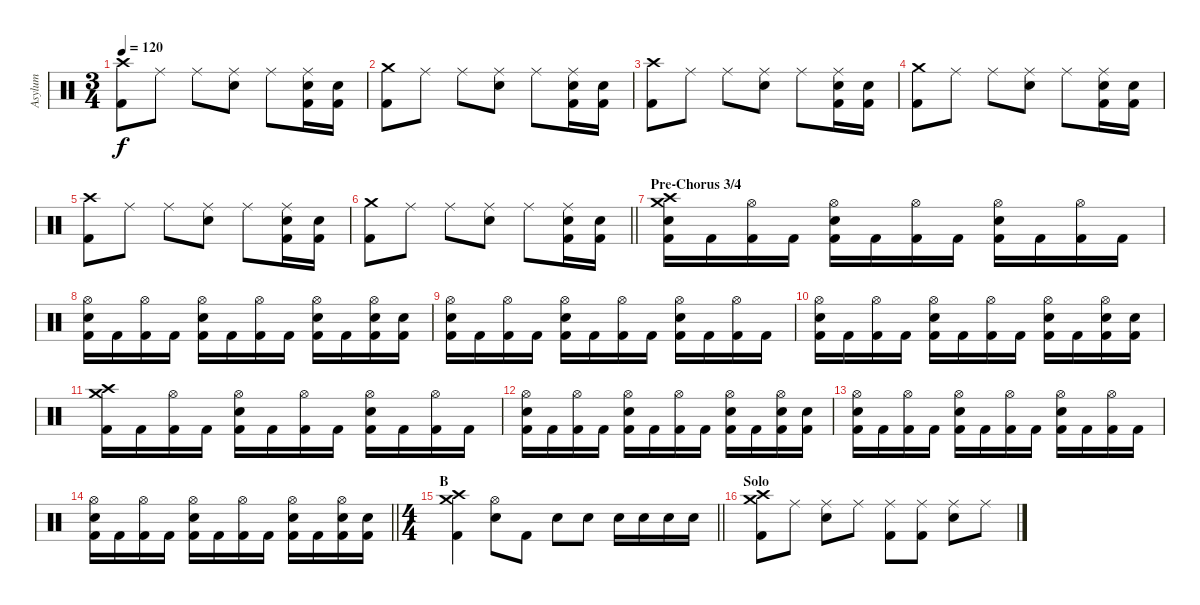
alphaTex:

\track ("Asylum" "Asylum") {instrument percussion}
\staff {score}
\articulation defaults
\ts (3 4)
\tempo 120
\clef neutral
\ks c
("Crash high (hit)" "Kick (hit) 2").8{dy f} "Ride (middle)".8 "Ride (middle)".8 ("Ride (middle)" "Electric Snare (hit)").8 "Ride (middle)".8 ("Ride (middle)" "Electric Snare (hit)" "Kick (hit) 2").16 ("Electric Snare (hit)" "Kick (hit) 2").16 |
("Crash medium (hit)" "Kick (hit) 2").8 "Ride (middle)".8 "Ride (middle)".8 ("Ride (middle)" "Electric Snare (hit)").8 "Ride (middle)".8 ("Ride (middle)" "Electric Snare (hit)" "Kick (hit) 2").16 ("Electric Snare (hit)" "Kick (hit) 2").16 |
("Crash high (hit)" "Kick (hit) 2").8 "Ride (middle)".8 "Ride (middle)".8 ("Ride (middle)" "Electric Snare (hit)").8 "Ride (middle)".8 ("Ride (middle)" "Electric Snare (hit)" "Kick (hit) 2").16 ("Electric Snare (hit)" "Kick (hit) 2").16 |
("Crash medium (hit)" "Kick (hit) 2").8 "Ride (middle)".8 "Ride (middle)".8 ("Ride (middle)" "Electric Snare (hit)").8 "Ride (middle)".8 ("Ride (middle)" "Electric Snare (hit)" "Kick (hit) 2").16 ("Electric Snare (hit)" "Kick (hit) 2").16 |
("Crash high (hit)" "Kick (hit) 2").8 "Ride (middle)".8 "Ride (middle)".8 ("Ride (middle)" "Electric Snare (hit)").8 "Ride (middle)".8 ("Ride (middle)" "Electric Snare (hit)" "Kick (hit) 2").16 ("Electric Snare (hit)" "Kick (hit) 2").16 |
\barLineRight lightlight
("Crash medium (hit)" "Kick (hit) 2").8 "Ride (middle)".8 "Ride (middle)".8 ("Ride (middle)" "Electric Snare (hit)").8 "Ride (middle)".8 ("Ride (middle)" "Electric Snare (hit)" "Kick (hit) 2").16 ("Electric Snare (hit)" "Kick (hit) 2").16 |
\section ("" "Pre-Chorus 3/4")
("Crash medium (hit)" "Crash high (hit)" "Electric Snare (hit)" "Kick (hit) 2").16 "Kick (hit) 2".16 ("Hi-Hat (open)" "Kick (hit) 2").16 "Kick (hit) 2".16 ("Hi-Hat (open)" "Electric Snare (hit)" "Kick (hit) 2").16 "Kick (hit) 2".16 ("Hi-Hat (open)" "Kick (hit) 2").16 "Kick (hit) 2".16 ("Hi-Hat (open)" "Electric Snare (hit)" "Kick (hit) 2").16 "Kick (hit) 2".16 ("Hi-Hat (open)" "Kick (hit) 2").16 "Kick (hit) 2".16 |
("Hi-Hat (open)" "Electric Snare (hit)" "Kick (hit) 2").16 "Kick (hit) 2".16 ("Hi-Hat (open)" "Kick (hit) 2").16 "Kick (hit) 2".16 ("Hi-Hat (open)" "Electric Snare (hit)" "Kick (hit) 2").16 "Kick (hit) 2".16 ("Hi-Hat (open)" "Kick (hit) 2").16 "Kick (hit) 2".16 ("Hi-Hat (open)" "Electric Snare (hit)" "Kick (hit) 2").16 "Kick (hit) 2".16 ("Hi-Hat (open)" "Electric Snare (hit)" "Kick (hit) 2").16 ("Electric Snare (hit)" "Kick (hit) 2").16 |
("Hi-Hat (open)" "Electric Snare (hit)" "Kick (hit) 2").16 "Kick (hit) 2".16 ("Hi-Hat (open)" "Kick (hit) 2").16 "Kick (hit) 2".16 ("Hi-Hat (open)" "Electric Snare (hit)" "Kick (hit) 2").16 "Kick (hit) 2".16 ("Hi-Hat (open)" "Kick (hit) 2").16 "Kick (hit) 2".16 ("Hi-Hat (open)" "Electric Snare (hit)" "Kick (hit) 2").16 "Kick (hit) 2".16 ("Hi-Hat (open)" "Kick (hit) 2").16 "Kick (hit) 2".16 |
("Hi-Hat (open)" "Electric Snare (hit)" "Kick (hit) 2").16 "Kick (hit) 2".16 ("Hi-Hat (open)" "Kick (hit) 2").16 "Kick (hit) 2".16 ("Hi-Hat (open)" "Electric Snare (hit)" "Kick (hit) 2").16 "Kick (hit) 2".16 ("Hi-Hat (open)" "Kick (hit) 2").16 "Kick (hit) 2".16 ("Hi-Hat (open)" "Electric Snare (hit)" "Kick (hit) 2").16 "Kick (hit) 2".16 ("Hi-Hat (open)" "Electric Snare (hit)" "Kick (hit) 2").16 ("Electric Snare (hit)" "Kick (hit) 2").16 |
("Crash medium (hit)" "Crash high (hit)" "Kick (hit) 2").16 "Kick (hit) 2".16 ("Hi-Hat (open)" "Kick (hit) 2").16 "Kick (hit) 2".16 ("Hi-Hat (open)" "Electric Snare (hit)" "Kick (hit) 2").16 "Kick (hit) 2".16 ("Hi-Hat (open)" "Kick (hit) 2").16 "Kick (hit) 2".16 ("Hi-Hat (open)" "Electric Snare (hit)" "Kick (hit) 2").16 "Kick (hit) 2".16 ("Hi-Hat (open)" "Kick (hit) 2").16 "Kick (hit) 2".16 |
("Hi-Hat (open)" "Electric Snare (hit)" "Kick (hit) 2").16 "Kick (hit) 2".16 ("Hi-Hat (open)" "Kick (hit) 2").16 "Kick (hit) 2".16 ("Hi-Hat (open)" "Electric Snare (hit)" "Kick (hit) 2").16 "Kick (hit) 2".16 ("Hi-Hat (open)" "Kick (hit) 2").16 "Kick (hit) 2".16 ("Hi-Hat (open)" "Electric Snare (hit)" "Kick (hit) 2").16 "Kick (hit) 2".16 ("Hi-Hat (open)" "Electric Snare (hit)" "Kick (hit) 2").16 ("Electric Snare (hit)" "Kick (hit) 2").16 |
("Hi-Hat (open)" "Electric Snare (hit)" "Kick (hit) 2").16 "Kick (hit) 2".16 ("Hi-Hat (open)" "Kick (hit) 2").16 "Kick (hit) 2".16 ("Hi-Hat (open)" "Electric Snare (hit)" "Kick (hit) 2").16 "Kick (hit) 2".16 ("Hi-Hat (open)" "Kick (hit) 2").16 "Kick (hit) 2".16 ("Hi-Hat (open)" "Electric Snare (hit)" "Kick (hit) 2").16 "Kick (hit) 2".16 ("Hi-Hat (open)" "Kick (hit) 2").16 "Kick (hit) 2".16 |
\barLineRight lightlight
("Hi-Hat (open)" "Electric Snare (hit)" "Kick (hit) 2").16 "Kick (hit) 2".16 ("Hi-Hat (open)" "Kick (hit) 2").16 "Kick (hit) 2".16 ("Hi-Hat (open)" "Electric Snare (hit)" "Kick (hit) 2").16 "Kick (hit) 2".16 ("Hi-Hat (open)" "Kick (hit) 2").16 "Kick (hit) 2".16 ("Hi-Hat (open)" "Electric Snare (hit)" "Kick (hit) 2").16 "Kick (hit) 2".16 ("Hi-Hat (open)" "Electric Snare (hit)" "Kick (hit) 2").16 ("Electric Snare (hit)" "Kick (hit) 2").16 |
\ts (4 4)
\section ("" "B")
\barLineRight lightlight
("Crash medium (hit)" "Crash high (hit)" "Kick (hit) 2").4 ("Hi-Hat (open)" "Electric Snare (hit)").8 "Kick (hit) 2".8 "Electric Snare (hit)".8 "Electric Snare (hit)".8 "Electric Snare (hit)".16 "Electric Snare (hit)".16 "Electric Snare (hit)".16 "Electric Snare (hit)".16 |
\section ("" "Solo")
("Crash medium (hit)" "Crash high (hit)" "Kick (hit) 2").8 "Ride (middle)".8 ("Ride (middle)" "Electric Snare (hit)").8 "Ride (middle)".8 ("Ride (middle)" "Kick (hit) 2").8 ("Ride (middle)" "Kick (hit) 2").8 ("Ride (middle)" "Electric Snare (hit)").8 "Ride (middle)".8
